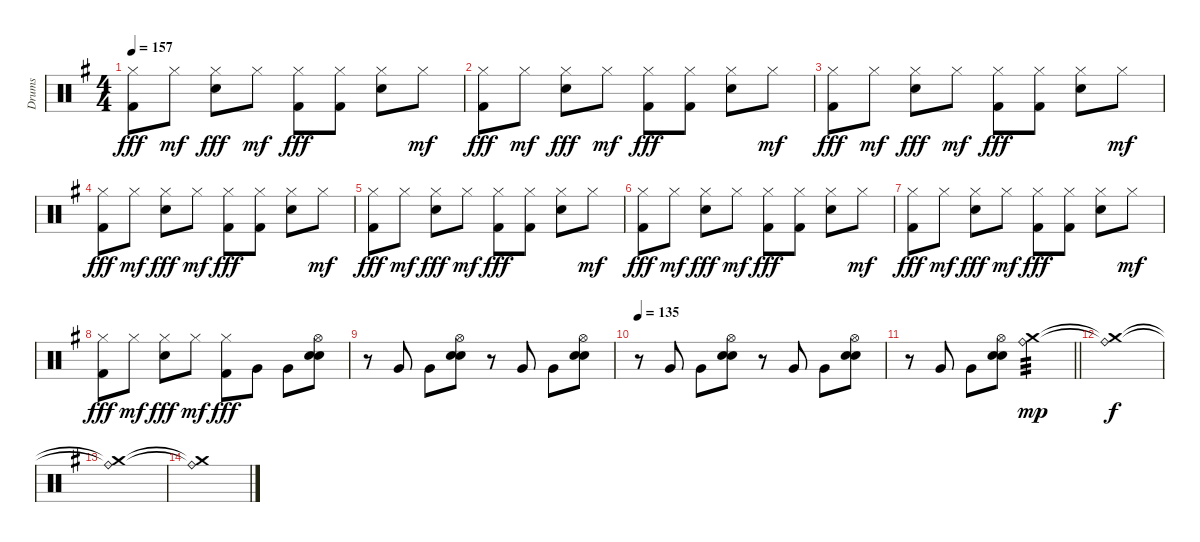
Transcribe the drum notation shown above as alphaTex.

\track ("Drums" "Drums") {instrument percussion}
\staff {score}
\articulation defaults
\ts (4 4)
\tempo 157
\clef neutral
\ks g
("Hi-Hat (closed)" "Kick (hit) 2").8{dy fff} "Hi-Hat (closed)".8{dy mf} ("Electric Snare (hit)" "Hi-Hat (closed)").8{dy fff} "Hi-Hat (closed)".8{dy mf} ("Hi-Hat (closed)" "Kick (hit) 2").8{dy fff} ("Hi-Hat (closed)" "Kick (hit) 2").8 ("Electric Snare (hit)" "Hi-Hat (closed)").8 "Hi-Hat (closed)".8{dy mf} |
("Hi-Hat (closed)" "Kick (hit) 2").8{dy fff} "Hi-Hat (closed)".8{dy mf} ("Electric Snare (hit)" "Hi-Hat (closed)").8{dy fff} "Hi-Hat (closed)".8{dy mf} ("Hi-Hat (closed)" "Kick (hit) 2").8{dy fff} ("Hi-Hat (closed)" "Kick (hit) 2").8 ("Electric Snare (hit)" "Hi-Hat (closed)").8 "Hi-Hat (closed)".8{dy mf} |
("Hi-Hat (closed)" "Kick (hit) 2").8{dy fff} "Hi-Hat (closed)".8{dy mf} ("Electric Snare (hit)" "Hi-Hat (closed)").8{dy fff} "Hi-Hat (closed)".8{dy mf} ("Hi-Hat (closed)" "Kick (hit) 2").8{dy fff} ("Hi-Hat (closed)" "Kick (hit) 2").8 ("Electric Snare (hit)" "Hi-Hat (closed)").8 "Hi-Hat (closed)".8{dy mf} |
("Hi-Hat (closed)" "Kick (hit) 2").8{dy fff} "Hi-Hat (closed)".8{dy mf} ("Electric Snare (hit)" "Hi-Hat (closed)").8{dy fff} "Hi-Hat (closed)".8{dy mf} ("Hi-Hat (closed)" "Kick (hit) 2").8{dy fff} ("Hi-Hat (closed)" "Kick (hit) 2").8 ("Electric Snare (hit)" "Hi-Hat (closed)").8 "Hi-Hat (closed)".8{dy mf} |
("Hi-Hat (closed)" "Kick (hit) 2").8{dy fff} "Hi-Hat (closed)".8{dy mf} ("Electric Snare (hit)" "Hi-Hat (closed)").8{dy fff} "Hi-Hat (closed)".8{dy mf} ("Hi-Hat (closed)" "Kick (hit) 2").8{dy fff} ("Hi-Hat (closed)" "Kick (hit) 2").8 ("Electric Snare (hit)" "Hi-Hat (closed)").8 "Hi-Hat (closed)".8{dy mf} |
("Hi-Hat (closed)" "Kick (hit) 2").8{dy fff} "Hi-Hat (closed)".8{dy mf} ("Electric Snare (hit)" "Hi-Hat (closed)").8{dy fff} "Hi-Hat (closed)".8{dy mf} ("Hi-Hat (closed)" "Kick (hit) 2").8{dy fff} ("Hi-Hat (closed)" "Kick (hit) 2").8 ("Electric Snare (hit)" "Hi-Hat (closed)").8 "Hi-Hat (closed)".8{dy mf} |
("Hi-Hat (closed)" "Kick (hit) 2").8{dy fff} "Hi-Hat (closed)".8{dy mf} ("Electric Snare (hit)" "Hi-Hat (closed)").8{dy fff} "Hi-Hat (closed)".8{dy mf} ("Hi-Hat (closed)" "Kick (hit) 2").8{dy fff} ("Hi-Hat (closed)" "Kick (hit) 2").8 ("Electric Snare (hit)" "Hi-Hat (closed)").8 "Hi-Hat (closed)".8{dy mf} |
("Hi-Hat (closed)" "Kick (hit) 2").8{dy fff} "Hi-Hat (closed)".8{dy mf} ("Electric Snare (hit)" "Hi-Hat (closed)").8{dy fff} "Hi-Hat (closed)".8{dy mf} ("Hi-Hat (closed)" "Kick (hit) 2").8{dy fff} "Very Low Tom (hit)".8 "Very Low Tom (hit)".8 ("Hi-Hat (open)" "Electric Snare (hit)" "Electric Snare (hit)").8 |
r.8 "Very Low Tom (hit)".8 "Very Low Tom (hit)".8 ("Hi-Hat (open)" "Electric Snare (hit)" "Electric Snare (hit)").8 r.8 "Very Low Tom (hit)".8 "Very Low Tom (hit)".8 ("Hi-Hat (open)" "Electric Snare (hit)" "Electric Snare (hit)").8 |
\tempo 135
r.8 "Very Low Tom (hit)".8 "Very Low Tom (hit)".8 ("Hi-Hat (open)" "Electric Snare (hit)" "Electric Snare (hit)").8 r.8 "Very Low Tom (hit)".8 "Very Low Tom (hit)".8 ("Hi-Hat (open)" "Electric Snare (hit)" "Electric Snare (hit)").8 |
\barLineRight lightlight
r.8 "Very Low Tom (hit)".8 "Very Low Tom (hit)".8 ("Hi-Hat (open)" "Electric Snare (hit)" "Electric Snare (hit)").8 ("Crash medium (hit)" "Ride (bell)").2{tp 3 dy mp} |
("Crash medium (hit)"{t} "Ride (bell)"{t}).1{dy f} |
("Crash medium (hit)"{t} "Ride (bell)"{t}).1 |
("Crash medium (hit)"{t} "Ride (bell)"{t}).1
